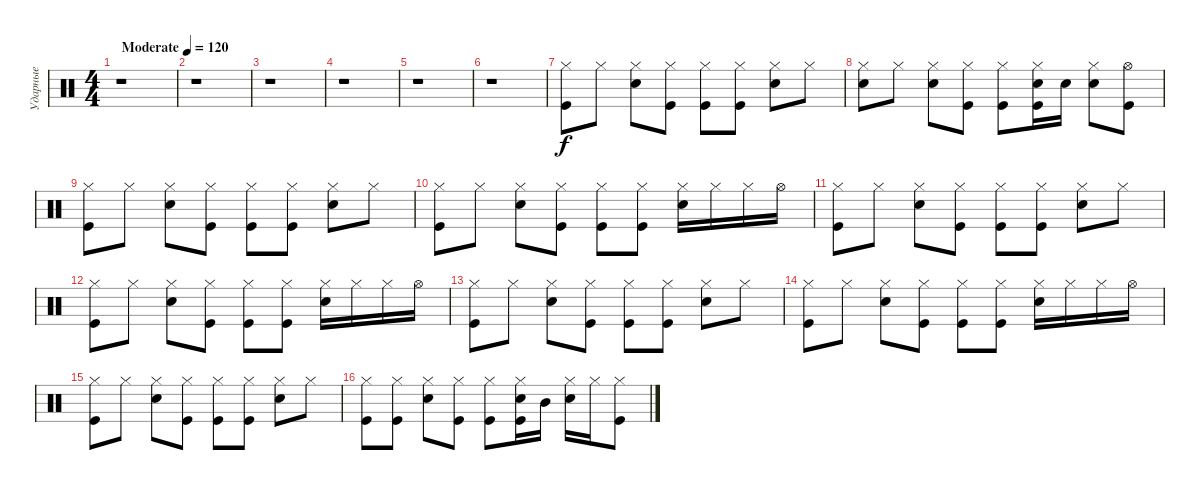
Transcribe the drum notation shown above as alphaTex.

\track ("Ударные" "Ударные") {instrument percussion}
\staff {score}
\articulation defaults
\ts (4 4)
\tempo (120 "Moderate")
\clef neutral
\ks c
r.1{dy f} |
r.1 |
r.1 |
r.1 |
r.1 |
r.1 |
("Kick (hit)" "Hi-Hat (closed)").8 "Hi-Hat (closed)".8 ("Hi-Hat (closed)" "Snare (hit) 2").8 ("Hi-Hat (closed)" "Kick (hit)").8 ("Hi-Hat (closed)" "Kick (hit)").8 ("Hi-Hat (closed)" "Kick (hit)").8 ("Hi-Hat (closed)" "Snare (hit) 2").8 "Hi-Hat (closed)".8 |
("Hi-Hat (closed)" "Snare (hit) 2").8 "Hi-Hat (closed)".8 ("Hi-Hat (closed)" "Snare (hit) 2").8 ("Hi-Hat (closed)" "Kick (hit)").8 ("Hi-Hat (closed)" "Kick (hit)").8 ("Hi-Hat (closed)" "Snare (hit) 2" "Kick (hit)").16 "Snare (hit) 2".16 ("Hi-Hat (closed)" "Snare (hit) 2").8 ("Hi-Hat (open)" "Kick (hit)").8 |
("Kick (hit)" "Hi-Hat (closed)").8 "Hi-Hat (closed)".8 ("Hi-Hat (closed)" "Snare (hit) 2").8 ("Hi-Hat (closed)" "Kick (hit)").8 ("Hi-Hat (closed)" "Kick (hit)").8 ("Hi-Hat (closed)" "Kick (hit)").8 ("Hi-Hat (closed)" "Snare (hit) 2").8 "Hi-Hat (closed)".8 |
("Kick (hit)" "Hi-Hat (closed)").8 "Hi-Hat (closed)".8 ("Hi-Hat (closed)" "Snare (hit) 2").8 ("Hi-Hat (closed)" "Kick (hit)").8 ("Hi-Hat (closed)" "Kick (hit)").8 ("Hi-Hat (closed)" "Kick (hit)").8 ("Hi-Hat (closed)" "Snare (hit) 2").16 "Hi-Hat (closed)".16 "Hi-Hat (closed)".16 "Hi-Hat (open)".16 |
("Kick (hit)" "Hi-Hat (closed)").8 "Hi-Hat (closed)".8 ("Hi-Hat (closed)" "Snare (hit) 2").8 ("Hi-Hat (closed)" "Kick (hit)").8 ("Hi-Hat (closed)" "Kick (hit)").8 ("Hi-Hat (closed)" "Kick (hit)").8 ("Hi-Hat (closed)" "Snare (hit) 2").8 "Hi-Hat (closed)".8 |
("Kick (hit)" "Hi-Hat (closed)").8 "Hi-Hat (closed)".8 ("Hi-Hat (closed)" "Snare (hit) 2").8 ("Hi-Hat (closed)" "Kick (hit)").8 ("Hi-Hat (closed)" "Kick (hit)").8 ("Hi-Hat (closed)" "Kick (hit)").8 ("Hi-Hat (closed)" "Snare (hit) 2").16 "Hi-Hat (closed)".16 "Hi-Hat (closed)".16 "Hi-Hat (open)".16 |
("Kick (hit)" "Hi-Hat (closed)").8 "Hi-Hat (closed)".8 ("Hi-Hat (closed)" "Snare (hit) 2").8 ("Hi-Hat (closed)" "Kick (hit)").8 ("Hi-Hat (closed)" "Kick (hit)").8 ("Hi-Hat (closed)" "Kick (hit)").8 ("Hi-Hat (closed)" "Snare (hit) 2").8 "Hi-Hat (closed)".8 |
("Kick (hit)" "Hi-Hat (closed)").8 "Hi-Hat (closed)".8 ("Hi-Hat (closed)" "Snare (hit) 2").8 ("Hi-Hat (closed)" "Kick (hit)").8 ("Hi-Hat (closed)" "Kick (hit)").8 ("Hi-Hat (closed)" "Kick (hit)").8 ("Hi-Hat (closed)" "Snare (hit) 2").16 "Hi-Hat (closed)".16 "Hi-Hat (closed)".16 "Hi-Hat (open)".16 |
("Kick (hit)" "Hi-Hat (closed)").8 "Hi-Hat (closed)".8 ("Hi-Hat (closed)" "Snare (hit) 2").8 ("Hi-Hat (closed)" "Kick (hit)").8 ("Hi-Hat (closed)" "Kick (hit)").8 ("Hi-Hat (closed)" "Kick (hit)").8 ("Hi-Hat (closed)" "Snare (hit) 2").8 "Hi-Hat (closed)".8 |
("Hi-Hat (closed)" "Kick (hit)").8 ("Hi-Hat (closed)" "Kick (hit)").8 ("Hi-Hat (closed)" "Snare (hit) 2").8 ("Hi-Hat (closed)" "Kick (hit)").8 ("Hi-Hat (closed)" "Kick (hit)").8 ("Hi-Hat (closed)" "Kick (hit)" "Snare (hit) 2").16 "Mid Tom (hit)".16 ("Hi-Hat (closed)" "Snare (hit) 2").16 "Hi-Hat (closed)".16 ("Hi-Hat (closed)" "Kick (hit)").8
